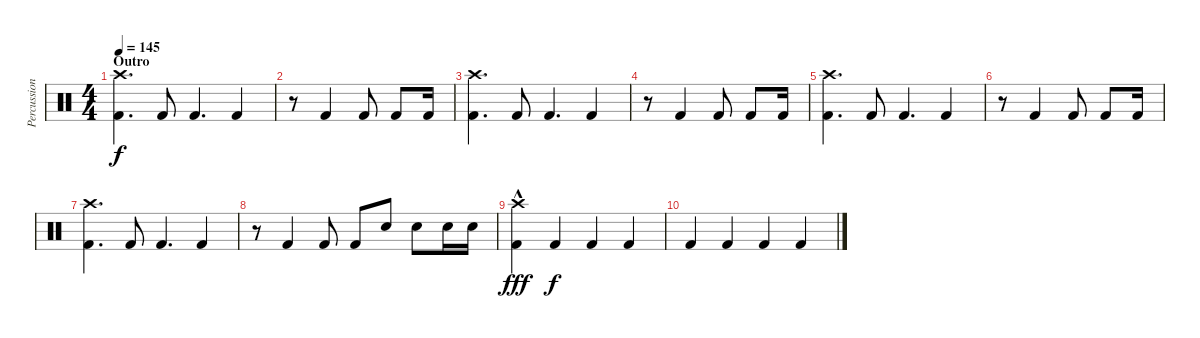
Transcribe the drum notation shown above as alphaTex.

\track ("Percussion" "Percussion") {instrument percussion}
\staff {score}
\articulation defaults
\ts (4 4)
\section ("" "Outro")
\tempo 145
\clef neutral
\ks c
("Crash high (hit)" "Kick (hit) 2").4{d dy f} "Kick (hit) 2".8 "Kick (hit) 2".4{d} "Kick (hit) 2".4 |
r.8 "Kick (hit) 2".4 "Kick (hit) 2".8 "Kick (hit) 2".8 "Kick (hit) 2".16 |
("Crash high (hit)" "Kick (hit) 2").4{d} "Kick (hit) 2".8 "Kick (hit) 2".4{d} "Kick (hit) 2".4 |
r.8 "Kick (hit) 2".4 "Kick (hit) 2".8 "Kick (hit) 2".8 "Kick (hit) 2".16 |
("Crash high (hit)" "Kick (hit) 2").4{d} "Kick (hit) 2".8 "Kick (hit) 2".4{d} "Kick (hit) 2".4 |
r.8 "Kick (hit) 2".4 "Kick (hit) 2".8 "Kick (hit) 2".8 "Kick (hit) 2".16 |
("Crash high (hit)" "Kick (hit) 2").4{d} "Kick (hit) 2".8 "Kick (hit) 2".4{d} "Kick (hit) 2".4 |
r.8 "Kick (hit) 2".4 "Kick (hit) 2".8 "Kick (hit) 2".8 "Electric Snare (hit)".8 "Electric Snare (hit)".8 "Electric Snare (hit)".16 "Electric Snare (hit)".16 |
("Crash high (hit)"{hac} "Kick (hit) 2").4{dy fff} "Kick (hit) 2".4{dy f} "Kick (hit) 2".4 "Kick (hit) 2".4 |
"Kick (hit) 2".4 "Kick (hit) 2".4 "Kick (hit) 2".4 "Kick (hit) 2".4
